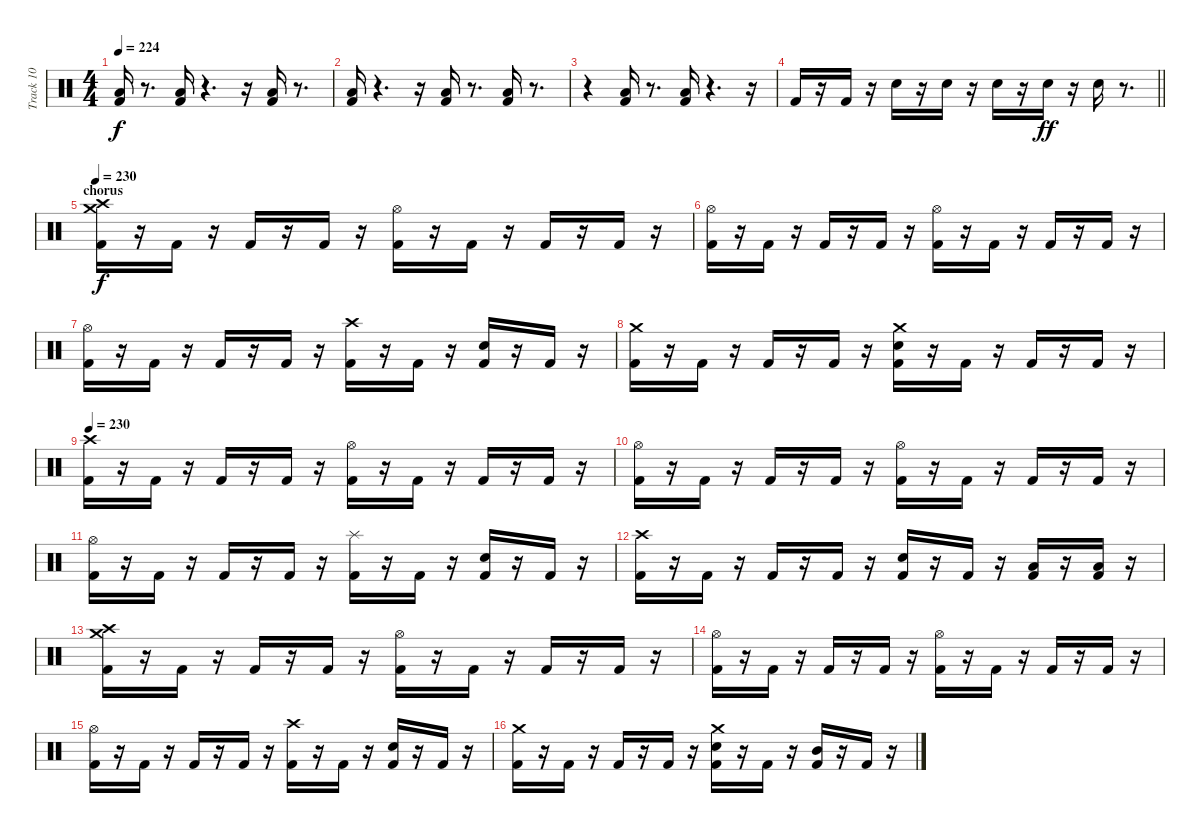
\track ("Track 10" "Track 10") {instrument percussion}
\staff {score}
\articulation defaults
\ts (4 4)
\tempo 224
\clef neutral
\ks c
("Kick (hit) 2" "Low Floor Tom (hit)").16{dy f} r.8{d} ("Kick (hit) 2" "Low Floor Tom (hit)").16 r.4{d} r.16 ("Kick (hit) 2" "Low Floor Tom (hit)").16 r.8{d} |
("Kick (hit) 2" "Low Floor Tom (hit)").16 r.4{d} r.16 ("Kick (hit) 2" "Low Floor Tom (hit)").16 r.8{d} ("Kick (hit) 2" "Low Floor Tom (hit)").16 r.8{d} |
r.4 ("Kick (hit) 2" "Low Floor Tom (hit)").16 r.8{d} ("Kick (hit) 2" "Low Floor Tom (hit)").16 r.4{d} r.16 |
\barLineRight lightlight "Kick (hit) 2".16
r.16 "Kick (hit) 2".16 r.16 "Snare (hit) 2".16 r.16 "Snare (hit) 2".16 r.16 "Snare (hit) 2".16 r.16 "Snare (hit) 2".16{dy ff} r.16 "Snare (hit) 2".16 r.8{d} |
\section ("" "chorus")
\tempo 230
("Kick (hit) 2" "Crash high (hit)" "Crash medium (hit)").16{dy f} r.16 "Kick (hit) 2".16 r.16 "Kick (hit) 2".16 r.16 "Kick (hit) 2".16 r.16 ("Kick (hit) 2" "Hi-Hat (open)").16 r.16 "Kick (hit) 2".16 r.16 "Kick (hit) 2".16 r.16 "Kick (hit) 2".16 r.16 |
("Kick (hit) 2" "Hi-Hat (open)").16 r.16 "Kick (hit) 2".16 r.16 "Kick (hit) 2".16 r.16 "Kick (hit) 2".16 r.16 ("Kick (hit) 2" "Hi-Hat (open)").16 r.16 "Kick (hit) 2".16 r.16 "Kick (hit) 2".16 r.16 "Kick (hit) 2".16 r.16 |
("Kick (hit) 2" "Hi-Hat (open)").16 r.16 "Kick (hit) 2".16 r.16 "Kick (hit) 2".16 r.16 "Kick (hit) 2".16 r.16 ("Kick (hit) 2" "Crash high (hit)").16 r.16 "Kick (hit) 2".16 r.16 ("Kick (hit) 2" "Snare (hit) 2").16 r.16 "Kick (hit) 2".16 r.16 |
("Kick (hit) 2" "Crash medium (hit)").16 r.16 "Kick (hit) 2".16 r.16 "Kick (hit) 2".16 r.16 "Kick (hit) 2".16 r.16 ("Kick (hit) 2" "Snare (hit) 2" "Crash medium (hit)").16 r.16 "Kick (hit) 2".16 r.16 "Kick (hit) 2".16 r.16 "Kick (hit) 2".16 r.16 |
\tempo 230
("Kick (hit) 2" "Crash high (hit)").16 r.16 "Kick (hit) 2".16 r.16 "Kick (hit) 2".16 r.16 "Kick (hit) 2".16 r.16 ("Kick (hit) 2" "Hi-Hat (open)").16 r.16 "Kick (hit) 2".16 r.16 "Kick (hit) 2".16 r.16 "Kick (hit) 2".16 r.16 |
("Kick (hit) 2" "Hi-Hat (open)").16 r.16 "Kick (hit) 2".16 r.16 "Kick (hit) 2".16 r.16 "Kick (hit) 2".16 r.16 ("Kick (hit) 2" "Hi-Hat (open)").16 r.16 "Kick (hit) 2".16 r.16 "Kick (hit) 2".16 r.16 "Kick (hit) 2".16 r.16 |
("Kick (hit) 2" "Hi-Hat (open)").16 r.16 "Kick (hit) 2".16 r.16 "Kick (hit) 2".16 r.16 "Kick (hit) 2".16 r.16 ("Kick (hit) 2" "Splash (hit)").16 r.16 "Kick (hit) 2".16 r.16 ("Kick (hit) 2" "Snare (hit) 2").16 r.16 "Kick (hit) 2".16 r.16 |
("Kick (hit) 2" "Crash high (hit)").16 r.16 "Kick (hit) 2".16 r.16 "Kick (hit) 2".16 r.16 "Kick (hit) 2".16 r.16 ("Kick (hit) 2" "Snare (hit) 2").16 r.16 "Kick (hit) 2".16 r.16 ("Kick (hit) 2" "Low Tom (hit)").16 r.16 ("Kick (hit) 2" "Low Tom (hit)").16 r.16 |
("Kick (hit) 2" "Crash high (hit)" "Crash medium (hit)").16 r.16 "Kick (hit) 2".16 r.16 "Kick (hit) 2".16 r.16 "Kick (hit) 2".16 r.16 ("Kick (hit) 2" "Hi-Hat (open)").16 r.16 "Kick (hit) 2".16 r.16 "Kick (hit) 2".16 r.16 "Kick (hit) 2".16 r.16 |
("Kick (hit) 2" "Hi-Hat (open)").16 r.16 "Kick (hit) 2".16 r.16 "Kick (hit) 2".16 r.16 "Kick (hit) 2".16 r.16 ("Kick (hit) 2" "Hi-Hat (open)").16 r.16 "Kick (hit) 2".16 r.16 "Kick (hit) 2".16 r.16 "Kick (hit) 2".16 r.16 |
("Kick (hit) 2" "Hi-Hat (open)").16 r.16 "Kick (hit) 2".16 r.16 "Kick (hit) 2".16 r.16 "Kick (hit) 2".16 r.16 ("Kick (hit) 2" "Crash high (hit)").16 r.16 "Kick (hit) 2".16 r.16 ("Kick (hit) 2" "Snare (hit) 2").16 r.16 "Kick (hit) 2".16 r.16 |
("Kick (hit) 2" "Crash medium (hit)").16 r.16 "Kick (hit) 2".16 r.16 "Kick (hit) 2".16 r.16 "Kick (hit) 2".16 r.16 ("Kick (hit) 2" "Snare (hit) 2" "Crash medium (hit)").16 r.16 "Kick (hit) 2".16 r.16 ("Kick (hit) 2" "Mid Tom (hit)").16 r.16 "Kick (hit) 2".16 r.16
